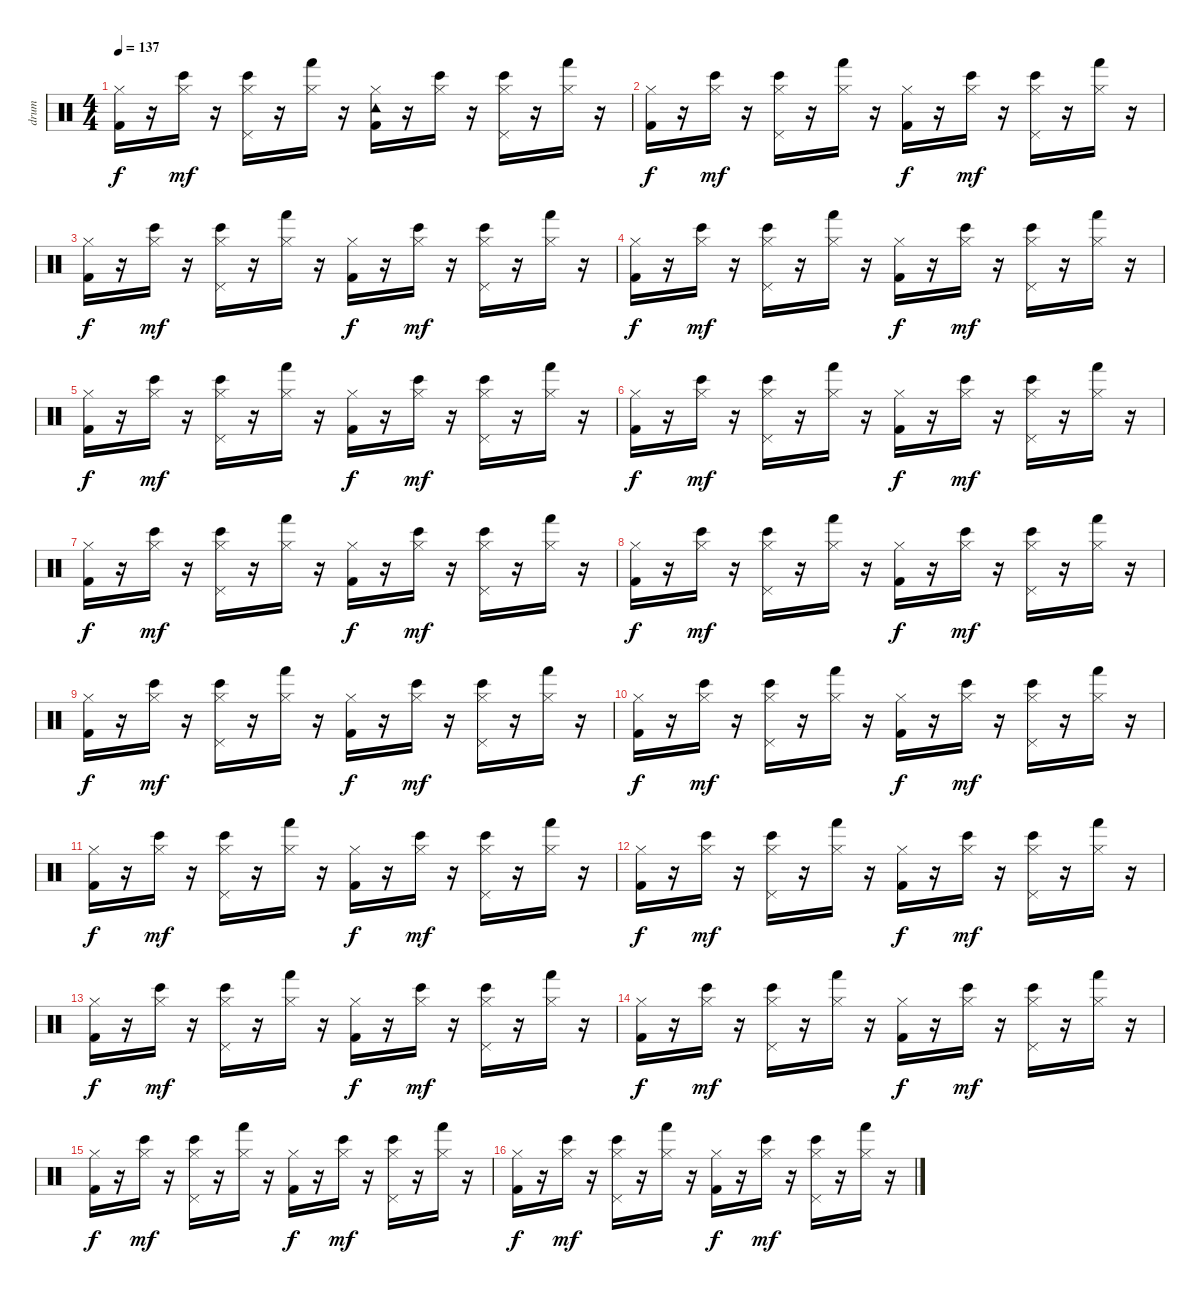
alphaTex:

\track ("drum" "drum") {instrument percussion}
\staff {score}
\articulation defaults
\ts (4 4)
\tempo 137
\clef neutral
\ks c
("Kick (hit) 2" "Hi-Hat (closed)").16{dy f} r.16 ("Hi-Hat (closed)" "Bongo High (hit)").16{dy mf} r.16 ("Hi-Hat (closed)" "Bongo High (hit)" "Pedal Hi-Hat (hit)").16 r.16 ("Hi-Hat (closed)" "Hand (hit)").16 r.16 ("Tambourine (hit)" "Kick (hit) 2" "Hi-Hat (closed)").16 r.16 ("Hi-Hat (closed)" "Bongo High (hit)").16 r.16 ("Hi-Hat (closed)" "Bongo High (hit)" "Pedal Hi-Hat (hit)").16 r.16 ("Hi-Hat (closed)" "Hand (hit)").16 r.16 |
("Kick (hit) 2" "Hi-Hat (closed)").16{dy f} r.16 ("Bongo High (hit)" "Hi-Hat (closed)").16{dy mf} r.16 ("Bongo High (hit)" "Hi-Hat (closed)" "Pedal Hi-Hat (hit)").16 r.16 ("Hi-Hat (closed)" "Hand (hit)").16 r.16 ("Kick (hit) 2" "Hi-Hat (closed)").16{dy f} r.16 ("Hi-Hat (closed)" "Bongo High (hit)").16{dy mf} r.16 ("Bongo High (hit)" "Hi-Hat (closed)" "Pedal Hi-Hat (hit)").16 r.16 ("Hand (hit)" "Hi-Hat (closed)").16 r.16 |
("Hi-Hat (closed)" "Kick (hit) 2").16{dy f} r.16 ("Bongo High (hit)" "Hi-Hat (closed)").16{dy mf} r.16 ("Hi-Hat (closed)" "Bongo High (hit)" "Pedal Hi-Hat (hit)").16 r.16 ("Hand (hit)" "Hi-Hat (closed)").16 r.16 ("Kick (hit) 2" "Hi-Hat (closed)").16{dy f} r.16 ("Hi-Hat (closed)" "Bongo High (hit)").16{dy mf} r.16 ("Hi-Hat (closed)" "Bongo High (hit)" "Pedal Hi-Hat (hit)").16 r.16 ("Hi-Hat (closed)" "Hand (hit)").16 r.16 |
("Kick (hit) 2" "Hi-Hat (closed)").16{dy f} r.16 ("Bongo High (hit)" "Hi-Hat (closed)").16{dy mf} r.16 ("Hi-Hat (closed)" "Bongo High (hit)" "Pedal Hi-Hat (hit)").16 r.16 ("Hi-Hat (closed)" "Hand (hit)").16 r.16 ("Hi-Hat (closed)" "Kick (hit) 2").16{dy f} r.16 ("Hi-Hat (closed)" "Bongo High (hit)").16{dy mf} r.16 ("Hi-Hat (closed)" "Bongo High (hit)" "Pedal Hi-Hat (hit)").16 r.16 ("Hand (hit)" "Hi-Hat (closed)").16 r.16 |
("Hi-Hat (closed)" "Kick (hit) 2").16{dy f} r.16 ("Bongo High (hit)" "Hi-Hat (closed)").16{dy mf} r.16 ("Hi-Hat (closed)" "Bongo High (hit)" "Pedal Hi-Hat (hit)").16 r.16 ("Hi-Hat (closed)" "Hand (hit)").16 r.16 ("Hi-Hat (closed)" "Kick (hit) 2").16{dy f} r.16 ("Hi-Hat (closed)" "Bongo High (hit)").16{dy mf} r.16 ("Bongo High (hit)" "Hi-Hat (closed)" "Pedal Hi-Hat (hit)").16 r.16 ("Hand (hit)" "Hi-Hat (closed)").16 r.16 |
("Hi-Hat (closed)" "Kick (hit) 2").16{dy f} r.16 ("Bongo High (hit)" "Hi-Hat (closed)").16{dy mf} r.16 ("Hi-Hat (closed)" "Bongo High (hit)" "Pedal Hi-Hat (hit)").16 r.16 ("Hand (hit)" "Hi-Hat (closed)").16 r.16 ("Hi-Hat (closed)" "Kick (hit) 2").16{dy f} r.16 ("Hi-Hat (closed)" "Bongo High (hit)").16{dy mf} r.16 ("Bongo High (hit)" "Hi-Hat (closed)" "Pedal Hi-Hat (hit)").16 r.16 ("Hand (hit)" "Hi-Hat (closed)").16 r.16 |
("Kick (hit) 2" "Hi-Hat (closed)").16{dy f} r.16 ("Hi-Hat (closed)" "Bongo High (hit)").16{dy mf} r.16 ("Bongo High (hit)" "Hi-Hat (closed)" "Pedal Hi-Hat (hit)").16 r.16 ("Hand (hit)" "Hi-Hat (closed)").16 r.16 ("Kick (hit) 2" "Hi-Hat (closed)").16{dy f} r.16 ("Hi-Hat (closed)" "Bongo High (hit)").16{dy mf} r.16 ("Hi-Hat (closed)" "Bongo High (hit)" "Pedal Hi-Hat (hit)").16 r.16 ("Hand (hit)" "Hi-Hat (closed)").16 r.16 |
("Kick (hit) 2" "Hi-Hat (closed)").16{dy f} r.16 ("Hi-Hat (closed)" "Bongo High (hit)").16{dy mf} r.16 ("Bongo High (hit)" "Hi-Hat (closed)" "Pedal Hi-Hat (hit)").16 r.16 ("Hi-Hat (closed)" "Hand (hit)").16 r.16 ("Kick (hit) 2" "Hi-Hat (closed)").16{dy f} r.16 ("Hi-Hat (closed)" "Bongo High (hit)").16{dy mf} r.16 ("Bongo High (hit)" "Hi-Hat (closed)" "Pedal Hi-Hat (hit)").16 r.16 ("Hi-Hat (closed)" "Hand (hit)").16 r.16 |
("Hi-Hat (closed)" "Kick (hit) 2").16{dy f} r.16 ("Hi-Hat (closed)" "Bongo High (hit)").16{dy mf} r.16 ("Bongo High (hit)" "Hi-Hat (closed)" "Pedal Hi-Hat (hit)").16 r.16 ("Hand (hit)" "Hi-Hat (closed)").16 r.16 ("Hi-Hat (closed)" "Kick (hit) 2").16{dy f} r.16 ("Bongo High (hit)" "Hi-Hat (closed)").16{dy mf} r.16 ("Bongo High (hit)" "Hi-Hat (closed)" "Pedal Hi-Hat (hit)").16 r.16 ("Hand (hit)" "Hi-Hat (closed)").16 r.16 |
("Hi-Hat (closed)" "Kick (hit) 2").16{dy f} r.16 ("Hi-Hat (closed)" "Bongo High (hit)").16{dy mf} r.16 ("Bongo High (hit)" "Hi-Hat (closed)" "Pedal Hi-Hat (hit)").16 r.16 ("Hand (hit)" "Hi-Hat (closed)").16 r.16 ("Hi-Hat (closed)" "Kick (hit) 2").16{dy f} r.16 ("Hi-Hat (closed)" "Bongo High (hit)").16{dy mf} r.16 ("Hi-Hat (closed)" "Bongo High (hit)" "Pedal Hi-Hat (hit)").16 r.16 ("Hand (hit)" "Hi-Hat (closed)").16 r.16 |
("Kick (hit) 2" "Hi-Hat (closed)").16{dy f} r.16 ("Hi-Hat (closed)" "Bongo High (hit)").16{dy mf} r.16 ("Bongo High (hit)" "Hi-Hat (closed)" "Pedal Hi-Hat (hit)").16 r.16 ("Hi-Hat (closed)" "Hand (hit)").16 r.16 ("Hi-Hat (closed)" "Kick (hit) 2").16{dy f} r.16 ("Hi-Hat (closed)" "Bongo High (hit)").16{dy mf} r.16 ("Hi-Hat (closed)" "Bongo High (hit)" "Pedal Hi-Hat (hit)").16 r.16 ("Hand (hit)" "Hi-Hat (closed)").16 r.16 |
("Hi-Hat (closed)" "Kick (hit) 2").16{dy f} r.16 ("Hi-Hat (closed)" "Bongo High (hit)").16{dy mf} r.16 ("Bongo High (hit)" "Hi-Hat (closed)" "Pedal Hi-Hat (hit)").16 r.16 ("Hand (hit)" "Hi-Hat (closed)").16 r.16 ("Kick (hit) 2" "Hi-Hat (closed)").16{dy f} r.16 ("Bongo High (hit)" "Hi-Hat (closed)").16{dy mf} r.16 ("Hi-Hat (closed)" "Bongo High (hit)" "Pedal Hi-Hat (hit)").16 r.16 ("Hi-Hat (closed)" "Hand (hit)").16 r.16 |
("Kick (hit) 2" "Hi-Hat (closed)").16{dy f} r.16 ("Hi-Hat (closed)" "Bongo High (hit)").16{dy mf} r.16 ("Hi-Hat (closed)" "Bongo High (hit)" "Pedal Hi-Hat (hit)").16 r.16 ("Hand (hit)" "Hi-Hat (closed)").16 r.16 ("Kick (hit) 2" "Hi-Hat (closed)").16{dy f} r.16 ("Bongo High (hit)" "Hi-Hat (closed)").16{dy mf} r.16 ("Bongo High (hit)" "Hi-Hat (closed)" "Pedal Hi-Hat (hit)").16 r.16 ("Hand (hit)" "Hi-Hat (closed)").16 r.16 |
("Kick (hit) 2" "Hi-Hat (closed)").16{dy f} r.16 ("Hi-Hat (closed)" "Bongo High (hit)").16{dy mf} r.16 ("Hi-Hat (closed)" "Bongo High (hit)" "Pedal Hi-Hat (hit)").16 r.16 ("Hi-Hat (closed)" "Hand (hit)").16 r.16 ("Kick (hit) 2" "Hi-Hat (closed)").16{dy f} r.16 ("Bongo High (hit)" "Hi-Hat (closed)").16{dy mf} r.16 ("Bongo High (hit)" "Hi-Hat (closed)" "Pedal Hi-Hat (hit)").16 r.16 ("Hi-Hat (closed)" "Hand (hit)").16 r.16 |
("Hi-Hat (closed)" "Kick (hit) 2").16{dy f} r.16 ("Bongo High (hit)" "Hi-Hat (closed)").16{dy mf} r.16 ("Hi-Hat (closed)" "Bongo High (hit)" "Pedal Hi-Hat (hit)").16 r.16 ("Hi-Hat (closed)" "Hand (hit)").16 r.16 ("Hi-Hat (closed)" "Kick (hit) 2").16{dy f} r.16 ("Hi-Hat (closed)" "Bongo High (hit)").16{dy mf} r.16 ("Bongo High (hit)" "Hi-Hat (closed)" "Pedal Hi-Hat (hit)").16 r.16 ("Hand (hit)" "Hi-Hat (closed)").16 r.16 |
("Hi-Hat (closed)" "Kick (hit) 2").16{dy f} r.16 ("Bongo High (hit)" "Hi-Hat (closed)").16{dy mf} r.16 ("Bongo High (hit)" "Hi-Hat (closed)" "Pedal Hi-Hat (hit)").16 r.16 ("Hand (hit)" "Hi-Hat (closed)").16 r.16 ("Kick (hit) 2" "Hi-Hat (closed)").16{dy f} r.16 ("Hi-Hat (closed)" "Bongo High (hit)").16{dy mf} r.16 ("Hi-Hat (closed)" "Bongo High (hit)" "Pedal Hi-Hat (hit)").16 r.16 ("Hi-Hat (closed)" "Hand (hit)").16 r.16
